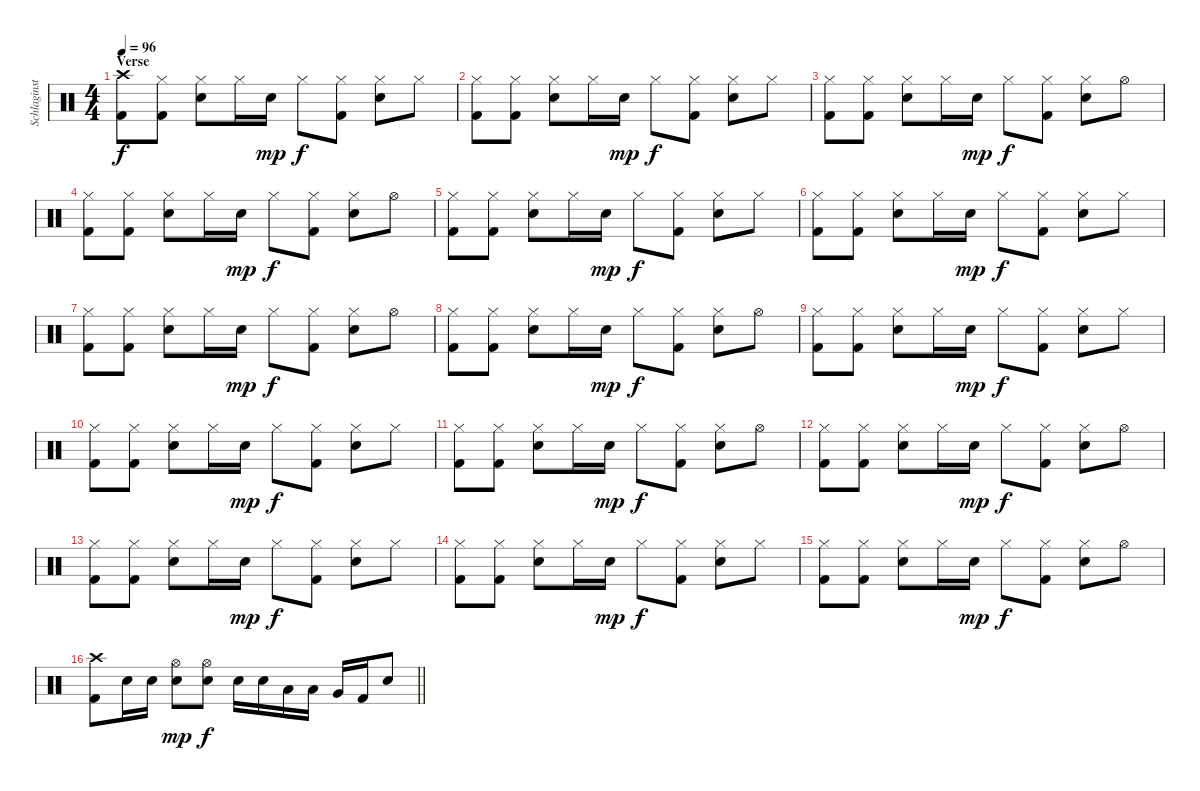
\track ("Schlaginstrumente - Auswahl" "Schlaginst") {instrument percussion}
\staff {score}
\articulation defaults
\ts (4 4)
\section ("" "Verse")
\tempo 96
\clef neutral
\ks c
("Crash high (hit)" "Kick (hit) 2").8{dy f} ("Hi-Hat (closed)" "Kick (hit) 2").8 ("Hi-Hat (closed)" "Electric Snare (hit)").8 "Hi-Hat (closed)".16 "Electric Snare (hit)".16{dy mp} "Hi-Hat (closed)".8{dy f} ("Hi-Hat (closed)" "Kick (hit) 2").8 ("Hi-Hat (closed)" "Electric Snare (hit)").8 "Hi-Hat (closed)".8 |
("Hi-Hat (closed)" "Kick (hit) 2").8 ("Hi-Hat (closed)" "Kick (hit) 2").8 ("Hi-Hat (closed)" "Electric Snare (hit)").8 "Hi-Hat (closed)".16 "Electric Snare (hit)".16{dy mp} "Hi-Hat (closed)".8{dy f} ("Hi-Hat (closed)" "Kick (hit) 2").8 ("Hi-Hat (closed)" "Electric Snare (hit)").8 "Hi-Hat (closed)".8 |
("Hi-Hat (closed)" "Kick (hit) 2").8 ("Hi-Hat (closed)" "Kick (hit) 2").8 ("Hi-Hat (closed)" "Electric Snare (hit)").8 "Hi-Hat (closed)".16 "Electric Snare (hit)".16{dy mp} "Hi-Hat (closed)".8{dy f} ("Hi-Hat (closed)" "Kick (hit) 2").8 ("Hi-Hat (closed)" "Electric Snare (hit)").8 "Hi-Hat (open)".8 |
("Hi-Hat (closed)" "Kick (hit) 2").8 ("Hi-Hat (closed)" "Kick (hit) 2").8 ("Hi-Hat (closed)" "Electric Snare (hit)").8 "Hi-Hat (closed)".16 "Electric Snare (hit)".16{dy mp} "Hi-Hat (closed)".8{dy f} ("Hi-Hat (closed)" "Kick (hit) 2").8 ("Hi-Hat (closed)" "Electric Snare (hit)").8 "Hi-Hat (open)".8 |
("Hi-Hat (closed)" "Kick (hit) 2").8 ("Hi-Hat (closed)" "Kick (hit) 2").8 ("Hi-Hat (closed)" "Electric Snare (hit)").8 "Hi-Hat (closed)".16 "Electric Snare (hit)".16{dy mp} "Hi-Hat (closed)".8{dy f} ("Hi-Hat (closed)" "Kick (hit) 2").8 ("Hi-Hat (closed)" "Electric Snare (hit)").8 "Hi-Hat (closed)".8 |
("Hi-Hat (closed)" "Kick (hit) 2").8 ("Hi-Hat (closed)" "Kick (hit) 2").8 ("Hi-Hat (closed)" "Electric Snare (hit)").8 "Hi-Hat (closed)".16 "Electric Snare (hit)".16{dy mp} "Hi-Hat (closed)".8{dy f} ("Hi-Hat (closed)" "Kick (hit) 2").8 ("Hi-Hat (closed)" "Electric Snare (hit)").8 "Hi-Hat (closed)".8 |
("Hi-Hat (closed)" "Kick (hit) 2").8 ("Hi-Hat (closed)" "Kick (hit) 2").8 ("Hi-Hat (closed)" "Electric Snare (hit)").8 "Hi-Hat (closed)".16 "Electric Snare (hit)".16{dy mp} "Hi-Hat (closed)".8{dy f} ("Hi-Hat (closed)" "Kick (hit) 2").8 ("Hi-Hat (closed)" "Electric Snare (hit)").8 "Hi-Hat (open)".8 |
("Hi-Hat (closed)" "Kick (hit) 2").8 ("Hi-Hat (closed)" "Kick (hit) 2").8 ("Hi-Hat (closed)" "Electric Snare (hit)").8 "Hi-Hat (closed)".16 "Electric Snare (hit)".16{dy mp} "Hi-Hat (closed)".8{dy f} ("Hi-Hat (closed)" "Kick (hit) 2").8 ("Hi-Hat (closed)" "Electric Snare (hit)").8 "Hi-Hat (open)".8 |
("Hi-Hat (closed)" "Kick (hit) 2").8 ("Hi-Hat (closed)" "Kick (hit) 2").8 ("Hi-Hat (closed)" "Electric Snare (hit)").8 "Hi-Hat (closed)".16 "Electric Snare (hit)".16{dy mp} "Hi-Hat (closed)".8{dy f} ("Hi-Hat (closed)" "Kick (hit) 2").8 ("Hi-Hat (closed)" "Electric Snare (hit)").8 "Hi-Hat (closed)".8 |
("Hi-Hat (closed)" "Kick (hit) 2").8 ("Hi-Hat (closed)" "Kick (hit) 2").8 ("Hi-Hat (closed)" "Electric Snare (hit)").8 "Hi-Hat (closed)".16 "Electric Snare (hit)".16{dy mp} "Hi-Hat (closed)".8{dy f} ("Hi-Hat (closed)" "Kick (hit) 2").8 ("Hi-Hat (closed)" "Electric Snare (hit)").8 "Hi-Hat (closed)".8 |
("Hi-Hat (closed)" "Kick (hit) 2").8 ("Hi-Hat (closed)" "Kick (hit) 2").8 ("Hi-Hat (closed)" "Electric Snare (hit)").8 "Hi-Hat (closed)".16 "Electric Snare (hit)".16{dy mp} "Hi-Hat (closed)".8{dy f} ("Hi-Hat (closed)" "Kick (hit) 2").8 ("Hi-Hat (closed)" "Electric Snare (hit)").8 "Hi-Hat (open)".8 |
("Hi-Hat (closed)" "Kick (hit) 2").8 ("Hi-Hat (closed)" "Kick (hit) 2").8 ("Hi-Hat (closed)" "Electric Snare (hit)").8 "Hi-Hat (closed)".16 "Electric Snare (hit)".16{dy mp} "Hi-Hat (closed)".8{dy f} ("Hi-Hat (closed)" "Kick (hit) 2").8 ("Hi-Hat (closed)" "Electric Snare (hit)").8 "Hi-Hat (open)".8 |
("Hi-Hat (closed)" "Kick (hit) 2").8 ("Hi-Hat (closed)" "Kick (hit) 2").8 ("Hi-Hat (closed)" "Electric Snare (hit)").8 "Hi-Hat (closed)".16 "Electric Snare (hit)".16{dy mp} "Hi-Hat (closed)".8{dy f} ("Hi-Hat (closed)" "Kick (hit) 2").8 ("Hi-Hat (closed)" "Electric Snare (hit)").8 "Hi-Hat (closed)".8 |
("Hi-Hat (closed)" "Kick (hit) 2").8 ("Hi-Hat (closed)" "Kick (hit) 2").8 ("Hi-Hat (closed)" "Electric Snare (hit)").8 "Hi-Hat (closed)".16 "Electric Snare (hit)".16{dy mp} "Hi-Hat (closed)".8{dy f} ("Hi-Hat (closed)" "Kick (hit) 2").8 ("Hi-Hat (closed)" "Electric Snare (hit)").8 "Hi-Hat (closed)".8 |
("Hi-Hat (closed)" "Kick (hit) 2").8 ("Hi-Hat (closed)" "Kick (hit) 2").8 ("Hi-Hat (closed)" "Electric Snare (hit)").8 "Hi-Hat (closed)".16 "Electric Snare (hit)".16{dy mp} "Hi-Hat (closed)".8{dy f} ("Hi-Hat (closed)" "Kick (hit) 2").8 ("Hi-Hat (closed)" "Electric Snare (hit)").8 "Hi-Hat (open)".8 |
\barLineRight lightlight
("Crash high (hit)" "Kick (hit) 2").8 "Electric Snare (hit)".16 "Electric Snare (hit)".16 ("Hi-Hat (open)" "Electric Snare (hit)").8{dy mp} ("Hi-Hat (open)" "Electric Snare (hit)").8{dy f} "Electric Snare (hit)".16 "Electric Snare (hit)".16 "Low Tom (hit)".16 "Low Tom (hit)".16 "Very Low Tom (hit)".16 "Kick (hit) 2".16 "Electric Snare (hit)".8
